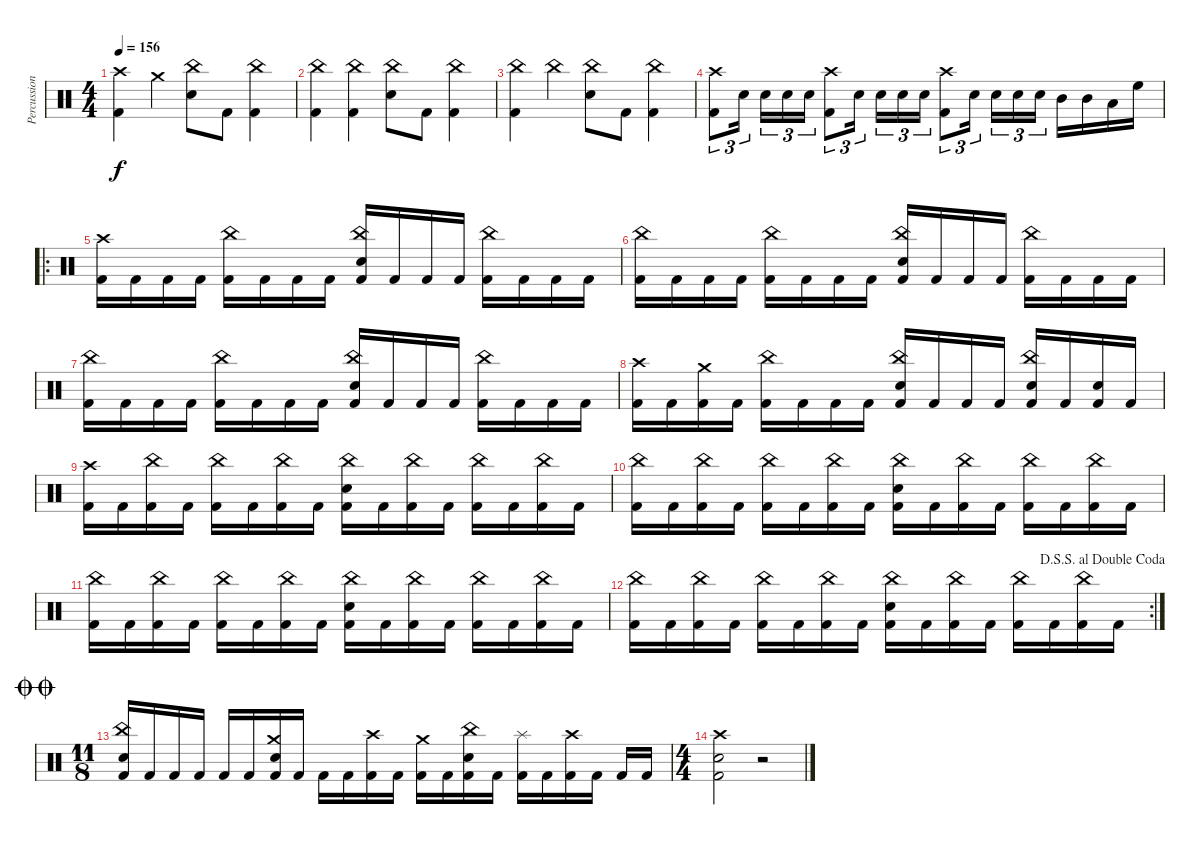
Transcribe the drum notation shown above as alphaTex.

\track ("Percussion" "Percussion") {instrument percussion}
\staff {score}
\articulation defaults
\ts (4 4)
\tempo 156
\clef neutral
\ks c
("Crash high (hit)" "Kick (hit) 2").4{dy f} "Crash medium (hit)".4 ("China (hit)" "Electric Snare (hit)").8 "Kick (hit) 2".8 ("China (hit)" "Kick (hit) 2").4 |
("China (hit)" "Kick (hit) 2").4 ("China (hit)" "Kick (hit) 2").4 ("China (hit)" "Electric Snare (hit)").8 "Kick (hit) 2".8 ("China (hit)" "Kick (hit) 2").4 |
("China (hit)" "Kick (hit) 2").4 "China (hit)".4 ("China (hit)" "Electric Snare (hit)").8 "Kick (hit) 2".8 ("China (hit)" "Kick (hit) 2").4 |
("Crash high (hit)" "Kick (hit) 2").8{tu (3 2)} "Electric Snare (hit)".16{tu (3 2) beam splitsecondary} "Electric Snare (hit)".16{tu (3 2)} "Electric Snare (hit)".16{tu (3 2)} "Electric Snare (hit)".16{tu (3 2)} ("Crash high (hit)" "Kick (hit) 2").8{tu (3 2)} "Electric Snare (hit)".16{tu (3 2) beam splitsecondary} "Electric Snare (hit)".16{tu (3 2)} "Electric Snare (hit)".16{tu (3 2)} "Electric Snare (hit)".16{tu (3 2)} ("Crash high (hit)" "Kick (hit) 2").8{tu (3 2)} "Electric Snare (hit)".16{tu (3 2) beam splitsecondary} "Electric Snare (hit)".16{tu (3 2)} "Electric Snare (hit)".16{tu (3 2)} "Electric Snare (hit)".16{tu (3 2)} "Mid Tom (hit)".16 "Mid Tom (hit)".16 "Low Tom (hit)".16 "High Floor Tom (hit)".16 |
\ro
("Crash high (hit)" "Kick (hit) 2").16 "Kick (hit) 2".16 "Kick (hit) 2".16 "Kick (hit) 2".16 ("China (hit)" "Kick (hit) 2").16 "Kick (hit) 2".16 "Kick (hit) 2".16 "Kick (hit) 2".16 ("China (hit)" "Electric Snare (hit)" "Kick (hit) 2").16 "Kick (hit) 2".16 "Kick (hit) 2".16 "Kick (hit) 2".16 ("China (hit)" "Kick (hit) 2").16 "Kick (hit) 2".16 "Kick (hit) 2".16 "Kick (hit) 2".16 |
("China (hit)" "Kick (hit) 2").16 "Kick (hit) 2".16 "Kick (hit) 2".16 "Kick (hit) 2".16 ("China (hit)" "Kick (hit) 2").16 "Kick (hit) 2".16 "Kick (hit) 2".16 "Kick (hit) 2".16 ("China (hit)" "Electric Snare (hit)" "Kick (hit) 2").16 "Kick (hit) 2".16 "Kick (hit) 2".16 "Kick (hit) 2".16 ("China (hit)" "Kick (hit) 2").16 "Kick (hit) 2".16 "Kick (hit) 2".16 "Kick (hit) 2".16 |
("China (hit)" "Kick (hit) 2").16 "Kick (hit) 2".16 "Kick (hit) 2".16 "Kick (hit) 2".16 ("China (hit)" "Kick (hit) 2").16 "Kick (hit) 2".16 "Kick (hit) 2".16 "Kick (hit) 2".16 ("China (hit)" "Electric Snare (hit)" "Kick (hit) 2").16 "Kick (hit) 2".16 "Kick (hit) 2".16 "Kick (hit) 2".16 ("China (hit)" "Kick (hit) 2").16 "Kick (hit) 2".16 "Kick (hit) 2".16 "Kick (hit) 2".16 |
("Crash high (hit)" "Kick (hit) 2").16 "Kick (hit) 2".16 ("Crash medium (hit)" "Kick (hit) 2").16 "Kick (hit) 2".16 ("China (hit)" "Kick (hit) 2").16 "Kick (hit) 2".16 "Kick (hit) 2".16 "Kick (hit) 2".16 ("China (hit)" "Electric Snare (hit)" "Kick (hit) 2").16 "Kick (hit) 2".16 "Kick (hit) 2".16 "Kick (hit) 2".16 ("China (hit)" "Electric Snare (hit)" "Kick (hit) 2").16 "Kick (hit) 2".16 ("Electric Snare (hit)" "Kick (hit) 2").16 "Kick (hit) 2".16 |
("Crash high (hit)" "Kick (hit) 2").16 "Kick (hit) 2".16 ("China (hit)" "Kick (hit) 2").16 "Kick (hit) 2".16 ("China (hit)" "Kick (hit) 2").16 "Kick (hit) 2".16 ("China (hit)" "Kick (hit) 2").16 "Kick (hit) 2".16 ("China (hit)" "Electric Snare (hit)" "Kick (hit) 2").16 "Kick (hit) 2".16 ("China (hit)" "Kick (hit) 2").16 "Kick (hit) 2".16 ("China (hit)" "Kick (hit) 2").16 "Kick (hit) 2".16 ("China (hit)" "Kick (hit) 2").16 "Kick (hit) 2".16 |
("China (hit)" "Kick (hit) 2").16 "Kick (hit) 2".16 ("China (hit)" "Kick (hit) 2").16 "Kick (hit) 2".16 ("China (hit)" "Kick (hit) 2").16 "Kick (hit) 2".16 ("China (hit)" "Kick (hit) 2").16 "Kick (hit) 2".16 ("China (hit)" "Electric Snare (hit)" "Kick (hit) 2").16 "Kick (hit) 2".16 ("China (hit)" "Kick (hit) 2").16 "Kick (hit) 2".16 ("China (hit)" "Kick (hit) 2").16 "Kick (hit) 2".16 ("China (hit)" "Kick (hit) 2").16 "Kick (hit) 2".16 |
("China (hit)" "Kick (hit) 2").16 "Kick (hit) 2".16 ("China (hit)" "Kick (hit) 2").16 "Kick (hit) 2".16 ("China (hit)" "Kick (hit) 2").16 "Kick (hit) 2".16 ("China (hit)" "Kick (hit) 2").16 "Kick (hit) 2".16 ("China (hit)" "Electric Snare (hit)" "Kick (hit) 2").16 "Kick (hit) 2".16 ("China (hit)" "Kick (hit) 2").16 "Kick (hit) 2".16 ("China (hit)" "Kick (hit) 2").16 "Kick (hit) 2".16 ("China (hit)" "Kick (hit) 2").16 "Kick (hit) 2".16 |
\rc 2
\jump dalsegnosegnoaldoublecoda
("China (hit)" "Kick (hit) 2").16 "Kick (hit) 2".16 ("China (hit)" "Kick (hit) 2").16 "Kick (hit) 2".16 ("China (hit)" "Kick (hit) 2").16 "Kick (hit) 2".16 ("China (hit)" "Kick (hit) 2").16 "Kick (hit) 2".16 ("China (hit)" "Electric Snare (hit)" "Kick (hit) 2").16 "Kick (hit) 2".16 ("China (hit)" "Kick (hit) 2").16 "Kick (hit) 2".16 ("China (hit)" "Kick (hit) 2").16 "Kick (hit) 2".16 ("China (hit)" "Kick (hit) 2").16 "Kick (hit) 2".16 |
\ts (11 8)
\jump doublecoda
("China (hit)" "Electric Snare (hit)" "Kick (hit) 2").16 "Kick (hit) 2".16 "Kick (hit) 2".16 "Kick (hit) 2".16 "Kick (hit) 2".16 "Kick (hit) 2".16 ("Crash medium (hit)" "Electric Snare (hit)" "Kick (hit) 2").16 "Kick (hit) 2".16 "Kick (hit) 2".16 "Kick (hit) 2".16 ("Crash high (hit)" "Kick (hit) 2").16 "Kick (hit) 2".16 ("Crash medium (hit)" "Kick (hit) 2").16 "Kick (hit) 2".16 ("China (hit)" "Electric Snare (hit)" "Kick (hit) 2").16 "Kick (hit) 2".16 ("Splash (hit)" "Kick (hit) 2").16 "Kick (hit) 2".16 ("Crash high (hit)" "Kick (hit) 2").16 "Kick (hit) 2".16 "Kick (hit) 2".16 "Kick (hit) 2".16 |
\ts (4 4)
("Crash high (hit)" "Electric Snare (hit)" "Kick (hit) 2").2 r.2
